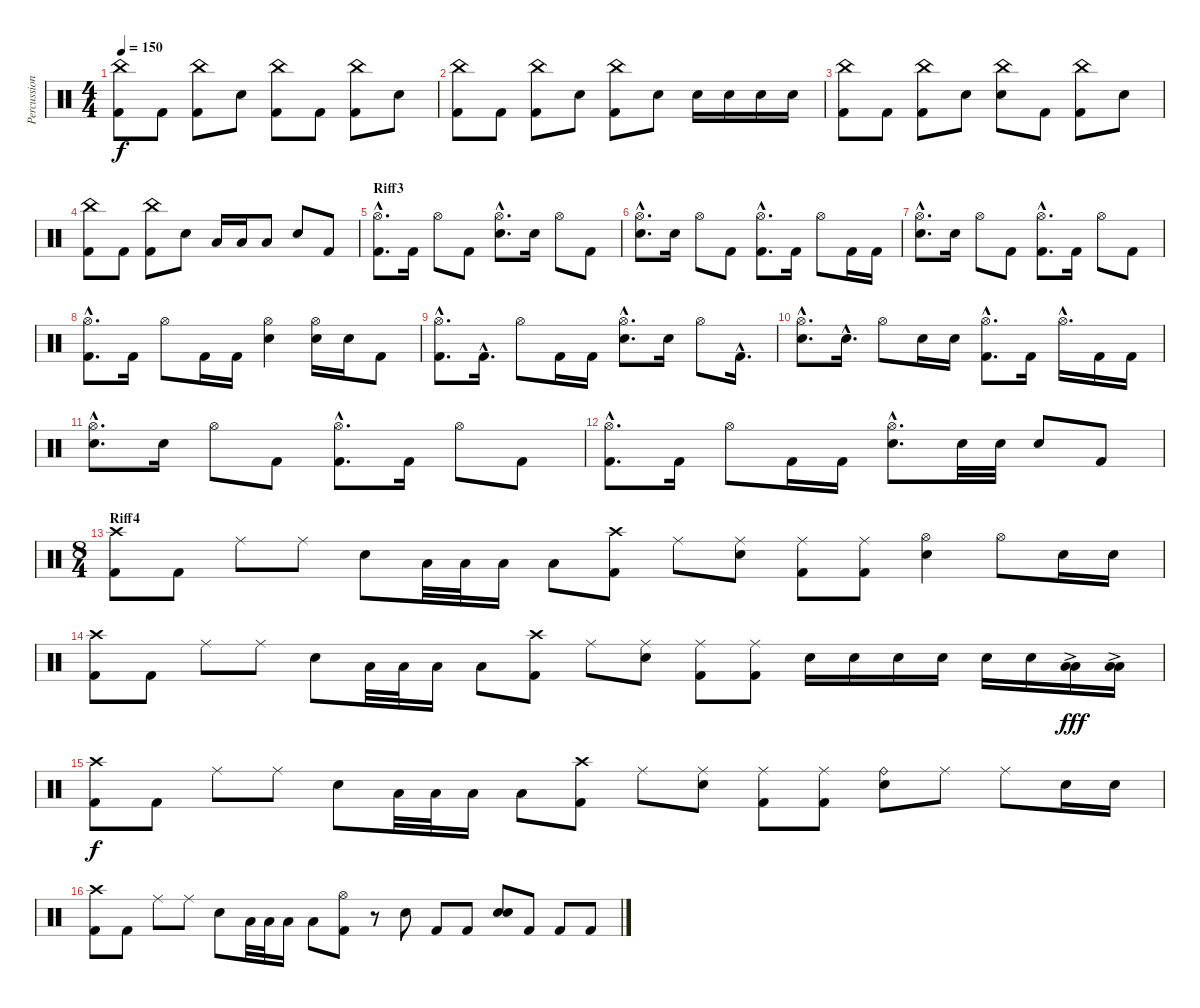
\track ("Percussions" "Percussion") {instrument percussion}
\staff {score}
\articulation defaults
\ts (4 4)
\tempo 150
\clef neutral
\ks c
("China (hit)" "Kick (hit) 2").8{dy f} "Kick (hit) 2".8 ("China (hit)" "Kick (hit) 2").8 "Electric Snare (hit)".8 ("China (hit)" "Kick (hit) 2").8 "Kick (hit) 2".8 ("China (hit)" "Kick (hit) 2").8 "Electric Snare (hit)".8 |
("China (hit)" "Kick (hit) 2").8 "Kick (hit) 2".8 ("China (hit)" "Kick (hit) 2").8 "Electric Snare (hit)".8 ("China (hit)" "Kick (hit) 2").8 "Electric Snare (hit)".8 "Electric Snare (hit)".16 "Electric Snare (hit)".16 "Electric Snare (hit)".16 "Electric Snare (hit)".16 |
("China (hit)" "Kick (hit) 2").8 "Kick (hit) 2".8 ("China (hit)" "Kick (hit) 2").8 "Electric Snare (hit)".8 ("China (hit)" "Electric Snare (hit)").8 "Kick (hit) 2".8 ("China (hit)" "Kick (hit) 2").8 "Electric Snare (hit)".8 |
("China (hit)" "Kick (hit) 2").8 "Kick (hit) 2".8 ("China (hit)" "Kick (hit) 2").8 "Electric Snare (hit)".8 "Low Tom (hit)".16 "Low Tom (hit)".16 "Low Floor Tom (hit)".8 "Electric Snare (hit)".8 "Kick (hit) 2".8 |
\section ("" "Riff3")
("Hi-Hat (open)"{hac} "Kick (hit) 2"{hac}).8{d} "Kick (hit) 2".16 "Hi-Hat (open)".8 "Kick (hit) 2".8 ("Hi-Hat (open)"{hac} "Electric Snare (hit)"{hac}).8{d} "Electric Snare (hit)".16 "Hi-Hat (open)".8 "Kick (hit) 2".8 |
("Hi-Hat (open)"{hac} "Electric Snare (hit)"{hac}).8{d} "Electric Snare (hit)".16 "Hi-Hat (open)".8 "Kick (hit) 2".8 ("Hi-Hat (open)"{hac} "Kick (hit) 2"{hac}).8{d} "Kick (hit) 2".16 "Hi-Hat (open)".8 "Kick (hit) 2".16 "Kick (hit) 2".16 |
("Hi-Hat (open)"{hac} "Electric Snare (hit)"{hac}).8{d} "Electric Snare (hit)".16 "Hi-Hat (open)".8 "Kick (hit) 2".8 ("Hi-Hat (open)"{hac} "Kick (hit) 2"{hac}).8{d} "Kick (hit) 2".16 "Hi-Hat (open)".8 "Kick (hit) 2".8 |
("Hi-Hat (open)"{hac} "Kick (hit) 2"{hac}).8{d} "Kick (hit) 2".16 "Hi-Hat (open)".8 "Kick (hit) 2".16 "Kick (hit) 2".16 ("Hi-Hat (open)" "Electric Snare (hit)").4 ("Hi-Hat (open)" "Electric Snare (hit)").16 "Electric Snare (hit)".16 "Kick (hit) 2".8 |
("Hi-Hat (open)"{hac} "Kick (hit) 2"{hac}).8{d} "Kick (hit) 2"{hac}.16{d} "Hi-Hat (open)".8 "Kick (hit) 2".16 "Kick (hit) 2".16 ("Hi-Hat (open)"{hac} "Electric Snare (hit)"{hac}).8{d} "Electric Snare (hit)".16 "Hi-Hat (open)".8 "Kick (hit) 2"{hac}.16{d} |
("Hi-Hat (open)"{hac} "Electric Snare (hit)"{hac}).8{d} "Electric Snare (hit)"{hac}.16{d} "Hi-Hat (open)".8 "Electric Snare (hit)".16 "Electric Snare (hit)".16 ("Hi-Hat (open)"{hac} "Kick (hit) 2"{hac}).8{d} "Kick (hit) 2".16 "Hi-Hat (open)"{hac}.16{d} "Kick (hit) 2".16 "Kick (hit) 2".16 |
("Hi-Hat (open)"{hac} "Electric Snare (hit)"{hac}).8{d} "Electric Snare (hit)".16 "Hi-Hat (open)".8 "Kick (hit) 2".8 ("Hi-Hat (open)"{hac} "Kick (hit) 2"{hac}).8{d} "Kick (hit) 2".16 "Hi-Hat (open)".8 "Kick (hit) 2".8 |
("Hi-Hat (open)"{hac} "Kick (hit) 2"{hac}).8{d} "Kick (hit) 2".16 "Hi-Hat (open)".8 "Kick (hit) 2".16 "Kick (hit) 2".16 ("Hi-Hat (open)"{hac} "Electric Snare (hit)"{hac}).8{d} "Electric Snare (hit)".32 "Electric Snare (hit)".32 "Electric Snare (hit)".8 "Kick (hit) 2".8 |
\ts (8 4)
\section ("" "Riff4")
("Crash high (hit)" "Kick (hit) 2").8 "Kick (hit) 2".8 "Ride (middle)".8 "Ride (middle)".8 "Electric Snare (hit)".8 "Low Tom (hit)".32 "Low Tom (hit)".32 "Low Floor Tom (hit)".16 "Low Floor Tom (hit)".8 ("Crash high (hit)" "Kick (hit) 2").8 "Ride (middle)".8 ("Ride (middle)" "Electric Snare (hit)").8 ("Ride (middle)" "Kick (hit) 2").8 ("Ride (middle)" "Kick (hit) 2").8 ("Hi-Hat (open)" "Electric Snare (hit)").4 "Hi-Hat (open)".8 "Electric Snare (hit)".16 "Electric Snare (hit)".16 |
("Crash high (hit)" "Kick (hit) 2").8 "Kick (hit) 2".8 "Ride (middle)".8 "Ride (middle)".8 "Electric Snare (hit)".8 "Low Tom (hit)".32 "Low Tom (hit)".32 "Low Floor Tom (hit)".16 "Low Floor Tom (hit)".8 ("Crash high (hit)" "Kick (hit) 2").8 "Ride (middle)".8 ("Ride (middle)" "Electric Snare (hit)").8 ("Ride (middle)" "Kick (hit) 2").8 ("Ride (middle)" "Kick (hit) 2").8 "Electric Snare (hit)".16 "Electric Snare (hit)".16 "Electric Snare (hit)".16 "Electric Snare (hit)".16 "Electric Snare (hit)".16 "Electric Snare (hit)".16 ("Low Tom (hit)"{ac} "Low Floor Tom (hit)").16{dy fff} ("Low Tom (hit)"{ac} "Low Floor Tom (hit)").16 |
("Crash high (hit)" "Kick (hit) 2").8{dy f} "Kick (hit) 2".8 "Ride (middle)".8 "Ride (middle)".8 "Electric Snare (hit)".8 "Low Tom (hit)".32 "Low Tom (hit)".32 "Low Floor Tom (hit)".16 "Low Floor Tom (hit)".8 ("Crash high (hit)" "Kick (hit) 2").8 "Ride (middle)".8 ("Ride (middle)" "Electric Snare (hit)").8 ("Ride (middle)" "Kick (hit) 2").8 ("Ride (middle)" "Kick (hit) 2").8 ("Ride (bell)" "Electric Snare (hit)").8 "Ride (middle)".8 "Ride (middle)".8 "Electric Snare (hit)".16 "Electric Snare (hit)".16 |
("Crash high (hit)" "Kick (hit) 2").8 "Kick (hit) 2".8 "Ride (middle)".8 "Ride (middle)".8 "Electric Snare (hit)".8 "Low Tom (hit)".32 "Low Tom (hit)".32 "Low Floor Tom (hit)".16 "Low Floor Tom (hit)".8 ("Hi-Hat (open)" "Kick (hit) 2").8 r.8 "Electric Snare (hit)".8 "Kick (hit) 2".8 "Kick (hit) 2".8 ("Electric Snare (hit)" "Electric Snare (hit)").8 "Kick (hit) 2".8 "Kick (hit) 2".8 "Kick (hit) 2".8
